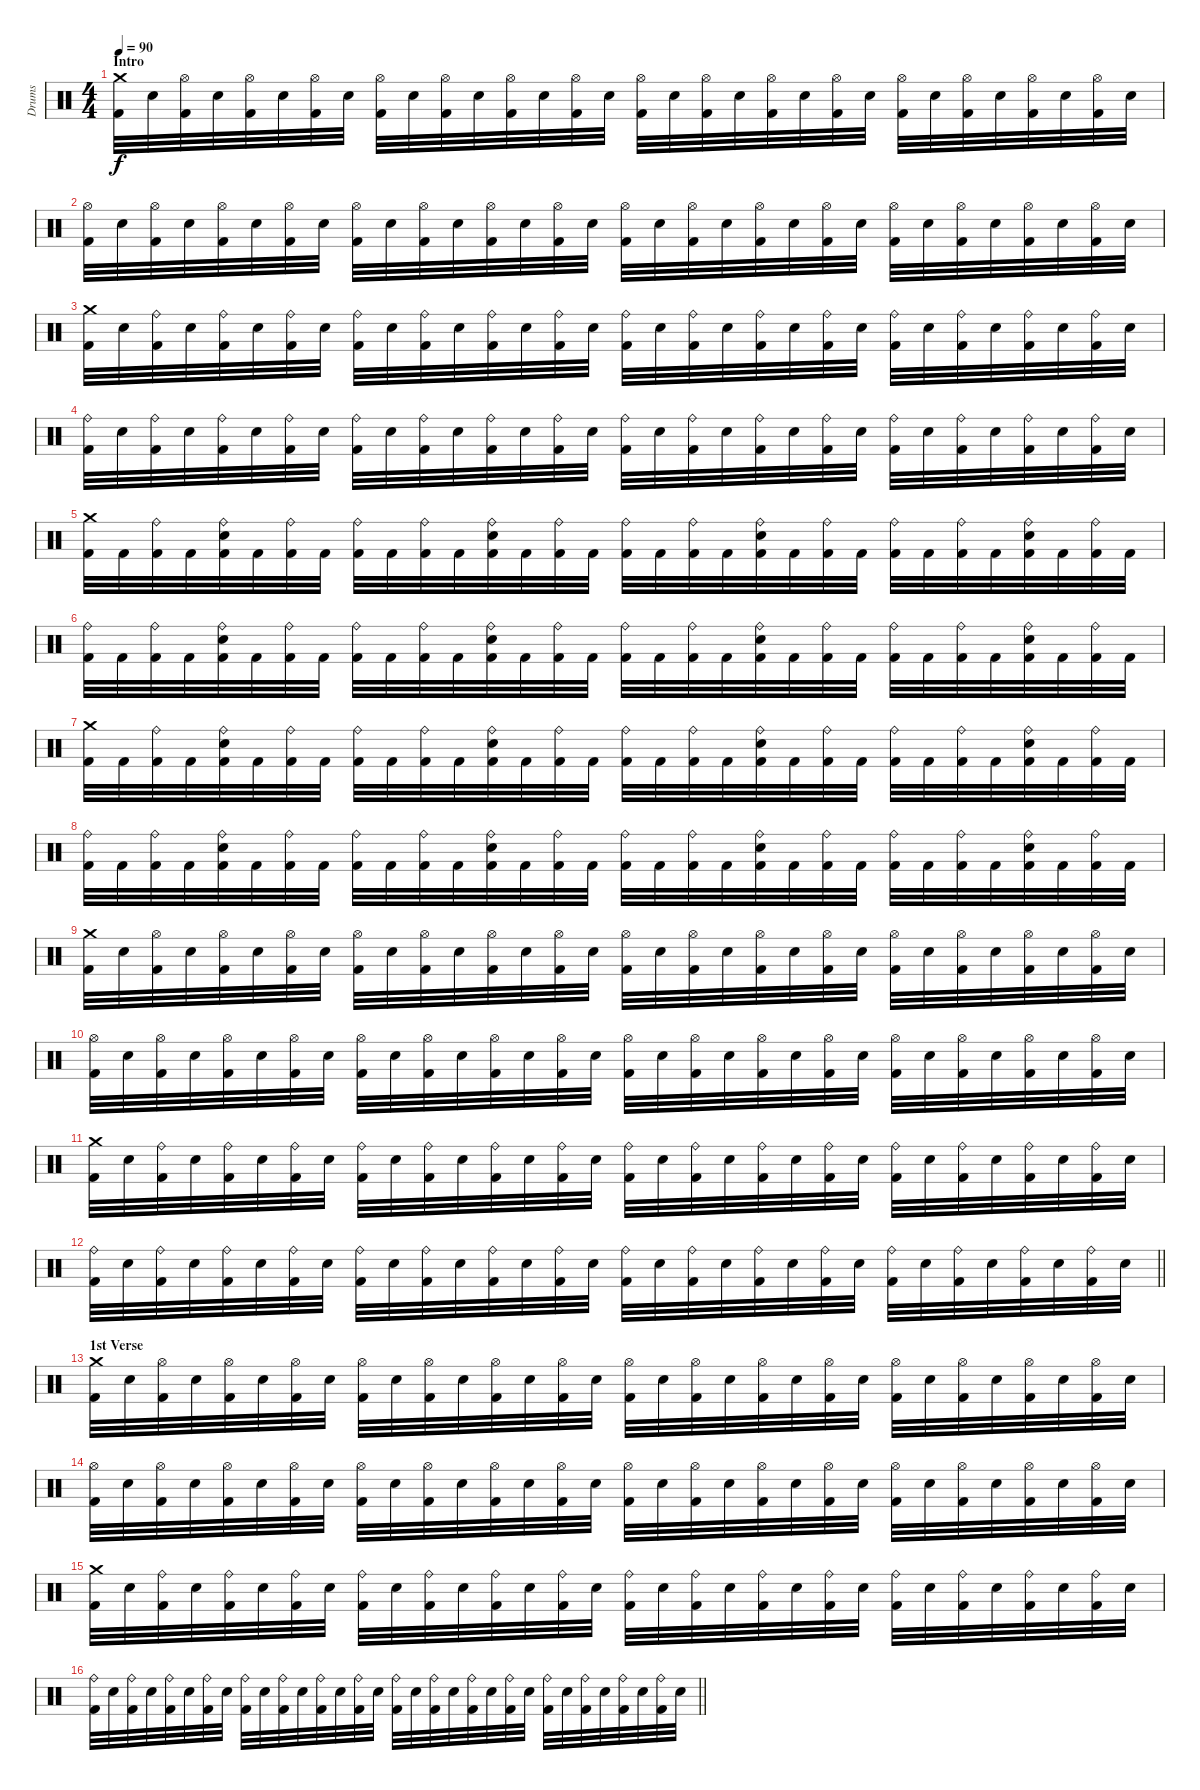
\track ("Drums" "Drums") {instrument percussion}
\staff {score}
\articulation defaults
\ts (4 4)
\section ("" "Intro")
\tempo 90
\clef neutral
\ks c
("Crash medium (hit)" "Kick (hit) 2").32{dy f} "Snare (hit) 2".32 ("Hi-Hat (open)" "Kick (hit) 2").32 "Snare (hit) 2".32 ("Hi-Hat (open)" "Kick (hit) 2").32 "Snare (hit) 2".32 ("Hi-Hat (open)" "Kick (hit) 2").32 "Snare (hit) 2".32 ("Hi-Hat (open)" "Kick (hit) 2").32 "Snare (hit) 2".32 ("Hi-Hat (open)" "Kick (hit) 2").32 "Snare (hit) 2".32 ("Hi-Hat (open)" "Kick (hit) 2").32 "Snare (hit) 2".32 ("Hi-Hat (open)" "Kick (hit) 2").32 "Snare (hit) 2".32 ("Hi-Hat (open)" "Kick (hit) 2").32 "Snare (hit) 2".32 ("Hi-Hat (open)" "Kick (hit) 2").32 "Snare (hit) 2".32 ("Hi-Hat (open)" "Kick (hit) 2").32 "Snare (hit) 2".32 ("Hi-Hat (open)" "Kick (hit) 2").32 "Snare (hit) 2".32 ("Hi-Hat (open)" "Kick (hit) 2").32 "Snare (hit) 2".32 ("Hi-Hat (open)" "Kick (hit) 2").32 "Snare (hit) 2".32 ("Hi-Hat (open)" "Kick (hit) 2").32 "Snare (hit) 2".32 ("Hi-Hat (open)" "Kick (hit) 2").32 "Snare (hit) 2".32 |
("Hi-Hat (open)" "Kick (hit) 2").32 "Snare (hit) 2".32 ("Hi-Hat (open)" "Kick (hit) 2").32 "Snare (hit) 2".32 ("Hi-Hat (open)" "Kick (hit) 2").32 "Snare (hit) 2".32 ("Hi-Hat (open)" "Kick (hit) 2").32 "Snare (hit) 2".32 ("Hi-Hat (open)" "Kick (hit) 2").32 "Snare (hit) 2".32 ("Hi-Hat (open)" "Kick (hit) 2").32 "Snare (hit) 2".32 ("Hi-Hat (open)" "Kick (hit) 2").32 "Snare (hit) 2".32 ("Hi-Hat (open)" "Kick (hit) 2").32 "Snare (hit) 2".32 ("Hi-Hat (open)" "Kick (hit) 2").32 "Snare (hit) 2".32 ("Hi-Hat (open)" "Kick (hit) 2").32 "Snare (hit) 2".32 ("Hi-Hat (open)" "Kick (hit) 2").32 "Snare (hit) 2".32 ("Hi-Hat (open)" "Kick (hit) 2").32 "Snare (hit) 2".32 ("Hi-Hat (open)" "Kick (hit) 2").32 "Snare (hit) 2".32 ("Hi-Hat (open)" "Kick (hit) 2").32 "Snare (hit) 2".32 ("Hi-Hat (open)" "Kick (hit) 2").32 "Snare (hit) 2".32 ("Hi-Hat (open)" "Kick (hit) 2").32 "Snare (hit) 2".32 |
("Crash medium (hit)" "Kick (hit) 2").32 "Snare (hit) 2".32 ("Ride (bell)" "Kick (hit) 2").32 "Snare (hit) 2".32 ("Ride (bell)" "Kick (hit) 2").32 "Snare (hit) 2".32 ("Ride (bell)" "Kick (hit) 2").32 "Snare (hit) 2".32 ("Ride (bell)" "Kick (hit) 2").32 "Snare (hit) 2".32 ("Ride (bell)" "Kick (hit) 2").32 "Snare (hit) 2".32 ("Ride (bell)" "Kick (hit) 2").32 "Snare (hit) 2".32 ("Ride (bell)" "Kick (hit) 2").32 "Snare (hit) 2".32 ("Ride (bell)" "Kick (hit) 2").32 "Snare (hit) 2".32 ("Ride (bell)" "Kick (hit) 2").32 "Snare (hit) 2".32 ("Ride (bell)" "Kick (hit) 2").32 "Snare (hit) 2".32 ("Ride (bell)" "Kick (hit) 2").32 "Snare (hit) 2".32 ("Ride (bell)" "Kick (hit) 2").32 "Snare (hit) 2".32 ("Ride (bell)" "Kick (hit) 2").32 "Snare (hit) 2".32 ("Ride (bell)" "Kick (hit) 2").32 "Snare (hit) 2".32 ("Ride (bell)" "Kick (hit) 2").32 "Snare (hit) 2".32 |
("Ride (bell)" "Kick (hit) 2").32 "Snare (hit) 2".32 ("Ride (bell)" "Kick (hit) 2").32 "Snare (hit) 2".32 ("Ride (bell)" "Kick (hit) 2").32 "Snare (hit) 2".32 ("Ride (bell)" "Kick (hit) 2").32 "Snare (hit) 2".32 ("Ride (bell)" "Kick (hit) 2").32 "Snare (hit) 2".32 ("Ride (bell)" "Kick (hit) 2").32 "Snare (hit) 2".32 ("Ride (bell)" "Kick (hit) 2").32 "Snare (hit) 2".32 ("Ride (bell)" "Kick (hit) 2").32 "Snare (hit) 2".32 ("Ride (bell)" "Kick (hit) 2").32 "Snare (hit) 2".32 ("Ride (bell)" "Kick (hit) 2").32 "Snare (hit) 2".32 ("Ride (bell)" "Kick (hit) 2").32 "Snare (hit) 2".32 ("Ride (bell)" "Kick (hit) 2").32 "Snare (hit) 2".32 ("Ride (bell)" "Kick (hit) 2").32 "Snare (hit) 2".32 ("Ride (bell)" "Kick (hit) 2").32 "Snare (hit) 2".32 ("Ride (bell)" "Kick (hit) 2").32 "Snare (hit) 2".32 ("Ride (bell)" "Kick (hit) 2").32 "Snare (hit) 2".32 |
("Crash medium (hit)" "Kick (hit) 2").32 "Kick (hit) 2".32 ("Ride (bell)" "Kick (hit) 2").32 "Kick (hit) 2".32 ("Ride (bell)" "Snare (hit) 2" "Kick (hit) 2").32 "Kick (hit) 2".32 ("Ride (bell)" "Kick (hit) 2").32 "Kick (hit) 2".32 ("Ride (bell)" "Kick (hit) 2").32 "Kick (hit) 2".32 ("Ride (bell)" "Kick (hit) 2").32 "Kick (hit) 2".32 ("Ride (bell)" "Snare (hit) 2" "Kick (hit) 2").32 "Kick (hit) 2".32 ("Ride (bell)" "Kick (hit) 2").32 "Kick (hit) 2".32 ("Ride (bell)" "Kick (hit) 2").32 "Kick (hit) 2".32 ("Ride (bell)" "Kick (hit) 2").32 "Kick (hit) 2".32 ("Ride (bell)" "Snare (hit) 2" "Kick (hit) 2").32 "Kick (hit) 2".32 ("Ride (bell)" "Kick (hit) 2").32 "Kick (hit) 2".32 ("Ride (bell)" "Kick (hit) 2").32 "Kick (hit) 2".32 ("Ride (bell)" "Kick (hit) 2").32 "Kick (hit) 2".32 ("Ride (bell)" "Snare (hit) 2" "Kick (hit) 2").32 "Kick (hit) 2".32 ("Ride (bell)" "Kick (hit) 2").32 "Kick (hit) 2".32 |
("Ride (bell)" "Kick (hit) 2").32 "Kick (hit) 2".32 ("Ride (bell)" "Kick (hit) 2").32 "Kick (hit) 2".32 ("Ride (bell)" "Snare (hit) 2" "Kick (hit) 2").32 "Kick (hit) 2".32 ("Ride (bell)" "Kick (hit) 2").32 "Kick (hit) 2".32 ("Ride (bell)" "Kick (hit) 2").32 "Kick (hit) 2".32 ("Ride (bell)" "Kick (hit) 2").32 "Kick (hit) 2".32 ("Ride (bell)" "Snare (hit) 2" "Kick (hit) 2").32 "Kick (hit) 2".32 ("Ride (bell)" "Kick (hit) 2").32 "Kick (hit) 2".32 ("Ride (bell)" "Kick (hit) 2").32 "Kick (hit) 2".32 ("Ride (bell)" "Kick (hit) 2").32 "Kick (hit) 2".32 ("Ride (bell)" "Snare (hit) 2" "Kick (hit) 2").32 "Kick (hit) 2".32 ("Ride (bell)" "Kick (hit) 2").32 "Kick (hit) 2".32 ("Ride (bell)" "Kick (hit) 2").32 "Kick (hit) 2".32 ("Ride (bell)" "Kick (hit) 2").32 "Kick (hit) 2".32 ("Ride (bell)" "Snare (hit) 2" "Kick (hit) 2").32 "Kick (hit) 2".32 ("Ride (bell)" "Kick (hit) 2").32 "Kick (hit) 2".32 |
("Crash medium (hit)" "Kick (hit) 2").32 "Kick (hit) 2".32 ("Ride (bell)" "Kick (hit) 2").32 "Kick (hit) 2".32 ("Ride (bell)" "Snare (hit) 2" "Kick (hit) 2").32 "Kick (hit) 2".32 ("Ride (bell)" "Kick (hit) 2").32 "Kick (hit) 2".32 ("Ride (bell)" "Kick (hit) 2").32 "Kick (hit) 2".32 ("Ride (bell)" "Kick (hit) 2").32 "Kick (hit) 2".32 ("Ride (bell)" "Snare (hit) 2" "Kick (hit) 2").32 "Kick (hit) 2".32 ("Ride (bell)" "Kick (hit) 2").32 "Kick (hit) 2".32 ("Ride (bell)" "Kick (hit) 2").32 "Kick (hit) 2".32 ("Ride (bell)" "Kick (hit) 2").32 "Kick (hit) 2".32 ("Ride (bell)" "Snare (hit) 2" "Kick (hit) 2").32 "Kick (hit) 2".32 ("Ride (bell)" "Kick (hit) 2").32 "Kick (hit) 2".32 ("Ride (bell)" "Kick (hit) 2").32 "Kick (hit) 2".32 ("Ride (bell)" "Kick (hit) 2").32 "Kick (hit) 2".32 ("Ride (bell)" "Snare (hit) 2" "Kick (hit) 2").32 "Kick (hit) 2".32 ("Ride (bell)" "Kick (hit) 2").32 "Kick (hit) 2".32 |
("Ride (bell)" "Kick (hit) 2").32 "Kick (hit) 2".32 ("Ride (bell)" "Kick (hit) 2").32 "Kick (hit) 2".32 ("Ride (bell)" "Snare (hit) 2" "Kick (hit) 2").32 "Kick (hit) 2".32 ("Ride (bell)" "Kick (hit) 2").32 "Kick (hit) 2".32 ("Ride (bell)" "Kick (hit) 2").32 "Kick (hit) 2".32 ("Ride (bell)" "Kick (hit) 2").32 "Kick (hit) 2".32 ("Ride (bell)" "Snare (hit) 2" "Kick (hit) 2").32 "Kick (hit) 2".32 ("Ride (bell)" "Kick (hit) 2").32 "Kick (hit) 2".32 ("Ride (bell)" "Kick (hit) 2").32 "Kick (hit) 2".32 ("Ride (bell)" "Kick (hit) 2").32 "Kick (hit) 2".32 ("Ride (bell)" "Snare (hit) 2" "Kick (hit) 2").32 "Kick (hit) 2".32 ("Ride (bell)" "Kick (hit) 2").32 "Kick (hit) 2".32 ("Ride (bell)" "Kick (hit) 2").32 "Kick (hit) 2".32 ("Ride (bell)" "Kick (hit) 2").32 "Kick (hit) 2".32 ("Ride (bell)" "Snare (hit) 2" "Kick (hit) 2").32 "Kick (hit) 2".32 ("Ride (bell)" "Kick (hit) 2").32 "Kick (hit) 2".32 |
("Crash medium (hit)" "Kick (hit) 2").32 "Snare (hit) 2".32 ("Hi-Hat (open)" "Kick (hit) 2").32 "Snare (hit) 2".32 ("Hi-Hat (open)" "Kick (hit) 2").32 "Snare (hit) 2".32 ("Hi-Hat (open)" "Kick (hit) 2").32 "Snare (hit) 2".32 ("Hi-Hat (open)" "Kick (hit) 2").32 "Snare (hit) 2".32 ("Hi-Hat (open)" "Kick (hit) 2").32 "Snare (hit) 2".32 ("Hi-Hat (open)" "Kick (hit) 2").32 "Snare (hit) 2".32 ("Hi-Hat (open)" "Kick (hit) 2").32 "Snare (hit) 2".32 ("Hi-Hat (open)" "Kick (hit) 2").32 "Snare (hit) 2".32 ("Hi-Hat (open)" "Kick (hit) 2").32 "Snare (hit) 2".32 ("Hi-Hat (open)" "Kick (hit) 2").32 "Snare (hit) 2".32 ("Hi-Hat (open)" "Kick (hit) 2").32 "Snare (hit) 2".32 ("Hi-Hat (open)" "Kick (hit) 2").32 "Snare (hit) 2".32 ("Hi-Hat (open)" "Kick (hit) 2").32 "Snare (hit) 2".32 ("Hi-Hat (open)" "Kick (hit) 2").32 "Snare (hit) 2".32 ("Hi-Hat (open)" "Kick (hit) 2").32 "Snare (hit) 2".32 |
("Hi-Hat (open)" "Kick (hit) 2").32 "Snare (hit) 2".32 ("Hi-Hat (open)" "Kick (hit) 2").32 "Snare (hit) 2".32 ("Hi-Hat (open)" "Kick (hit) 2").32 "Snare (hit) 2".32 ("Hi-Hat (open)" "Kick (hit) 2").32 "Snare (hit) 2".32 ("Hi-Hat (open)" "Kick (hit) 2").32 "Snare (hit) 2".32 ("Hi-Hat (open)" "Kick (hit) 2").32 "Snare (hit) 2".32 ("Hi-Hat (open)" "Kick (hit) 2").32 "Snare (hit) 2".32 ("Hi-Hat (open)" "Kick (hit) 2").32 "Snare (hit) 2".32 ("Hi-Hat (open)" "Kick (hit) 2").32 "Snare (hit) 2".32 ("Hi-Hat (open)" "Kick (hit) 2").32 "Snare (hit) 2".32 ("Hi-Hat (open)" "Kick (hit) 2").32 "Snare (hit) 2".32 ("Hi-Hat (open)" "Kick (hit) 2").32 "Snare (hit) 2".32 ("Hi-Hat (open)" "Kick (hit) 2").32 "Snare (hit) 2".32 ("Hi-Hat (open)" "Kick (hit) 2").32 "Snare (hit) 2".32 ("Hi-Hat (open)" "Kick (hit) 2").32 "Snare (hit) 2".32 ("Hi-Hat (open)" "Kick (hit) 2").32 "Snare (hit) 2".32 |
("Crash medium (hit)" "Kick (hit) 2").32 "Snare (hit) 2".32 ("Ride (bell)" "Kick (hit) 2").32 "Snare (hit) 2".32 ("Ride (bell)" "Kick (hit) 2").32 "Snare (hit) 2".32 ("Ride (bell)" "Kick (hit) 2").32 "Snare (hit) 2".32 ("Ride (bell)" "Kick (hit) 2").32 "Snare (hit) 2".32 ("Ride (bell)" "Kick (hit) 2").32 "Snare (hit) 2".32 ("Ride (bell)" "Kick (hit) 2").32 "Snare (hit) 2".32 ("Ride (bell)" "Kick (hit) 2").32 "Snare (hit) 2".32 ("Ride (bell)" "Kick (hit) 2").32 "Snare (hit) 2".32 ("Ride (bell)" "Kick (hit) 2").32 "Snare (hit) 2".32 ("Ride (bell)" "Kick (hit) 2").32 "Snare (hit) 2".32 ("Ride (bell)" "Kick (hit) 2").32 "Snare (hit) 2".32 ("Ride (bell)" "Kick (hit) 2").32 "Snare (hit) 2".32 ("Ride (bell)" "Kick (hit) 2").32 "Snare (hit) 2".32 ("Ride (bell)" "Kick (hit) 2").32 "Snare (hit) 2".32 ("Ride (bell)" "Kick (hit) 2").32 "Snare (hit) 2".32 |
\barLineRight lightlight
("Ride (bell)" "Kick (hit) 2").32 "Snare (hit) 2".32 ("Ride (bell)" "Kick (hit) 2").32 "Snare (hit) 2".32 ("Ride (bell)" "Kick (hit) 2").32 "Snare (hit) 2".32 ("Ride (bell)" "Kick (hit) 2").32 "Snare (hit) 2".32 ("Ride (bell)" "Kick (hit) 2").32 "Snare (hit) 2".32 ("Ride (bell)" "Kick (hit) 2").32 "Snare (hit) 2".32 ("Ride (bell)" "Kick (hit) 2").32 "Snare (hit) 2".32 ("Ride (bell)" "Kick (hit) 2").32 "Snare (hit) 2".32 ("Ride (bell)" "Kick (hit) 2").32 "Snare (hit) 2".32 ("Ride (bell)" "Kick (hit) 2").32 "Snare (hit) 2".32 ("Ride (bell)" "Kick (hit) 2").32 "Snare (hit) 2".32 ("Ride (bell)" "Kick (hit) 2").32 "Snare (hit) 2".32 ("Ride (bell)" "Kick (hit) 2").32 "Snare (hit) 2".32 ("Ride (bell)" "Kick (hit) 2").32 "Snare (hit) 2".32 ("Ride (bell)" "Kick (hit) 2").32 "Snare (hit) 2".32 ("Ride (bell)" "Kick (hit) 2").32 "Snare (hit) 2".32 |
\section ("" "1st Verse")
("Crash medium (hit)" "Kick (hit) 2").32 "Snare (hit) 2".32 ("Hi-Hat (open)" "Kick (hit) 2").32 "Snare (hit) 2".32 ("Hi-Hat (open)" "Kick (hit) 2").32 "Snare (hit) 2".32 ("Hi-Hat (open)" "Kick (hit) 2").32 "Snare (hit) 2".32 ("Hi-Hat (open)" "Kick (hit) 2").32 "Snare (hit) 2".32 ("Hi-Hat (open)" "Kick (hit) 2").32 "Snare (hit) 2".32 ("Hi-Hat (open)" "Kick (hit) 2").32 "Snare (hit) 2".32 ("Hi-Hat (open)" "Kick (hit) 2").32 "Snare (hit) 2".32 ("Hi-Hat (open)" "Kick (hit) 2").32 "Snare (hit) 2".32 ("Hi-Hat (open)" "Kick (hit) 2").32 "Snare (hit) 2".32 ("Hi-Hat (open)" "Kick (hit) 2").32 "Snare (hit) 2".32 ("Hi-Hat (open)" "Kick (hit) 2").32 "Snare (hit) 2".32 ("Hi-Hat (open)" "Kick (hit) 2").32 "Snare (hit) 2".32 ("Hi-Hat (open)" "Kick (hit) 2").32 "Snare (hit) 2".32 ("Hi-Hat (open)" "Kick (hit) 2").32 "Snare (hit) 2".32 ("Hi-Hat (open)" "Kick (hit) 2").32 "Snare (hit) 2".32 |
("Hi-Hat (open)" "Kick (hit) 2").32 "Snare (hit) 2".32 ("Hi-Hat (open)" "Kick (hit) 2").32 "Snare (hit) 2".32 ("Hi-Hat (open)" "Kick (hit) 2").32 "Snare (hit) 2".32 ("Hi-Hat (open)" "Kick (hit) 2").32 "Snare (hit) 2".32 ("Hi-Hat (open)" "Kick (hit) 2").32 "Snare (hit) 2".32 ("Hi-Hat (open)" "Kick (hit) 2").32 "Snare (hit) 2".32 ("Hi-Hat (open)" "Kick (hit) 2").32 "Snare (hit) 2".32 ("Hi-Hat (open)" "Kick (hit) 2").32 "Snare (hit) 2".32 ("Hi-Hat (open)" "Kick (hit) 2").32 "Snare (hit) 2".32 ("Hi-Hat (open)" "Kick (hit) 2").32 "Snare (hit) 2".32 ("Hi-Hat (open)" "Kick (hit) 2").32 "Snare (hit) 2".32 ("Hi-Hat (open)" "Kick (hit) 2").32 "Snare (hit) 2".32 ("Hi-Hat (open)" "Kick (hit) 2").32 "Snare (hit) 2".32 ("Hi-Hat (open)" "Kick (hit) 2").32 "Snare (hit) 2".32 ("Hi-Hat (open)" "Kick (hit) 2").32 "Snare (hit) 2".32 ("Hi-Hat (open)" "Kick (hit) 2").32 "Snare (hit) 2".32 |
("Crash medium (hit)" "Kick (hit) 2").32 "Snare (hit) 2".32 ("Ride (bell)" "Kick (hit) 2").32 "Snare (hit) 2".32 ("Ride (bell)" "Kick (hit) 2").32 "Snare (hit) 2".32 ("Ride (bell)" "Kick (hit) 2").32 "Snare (hit) 2".32 ("Ride (bell)" "Kick (hit) 2").32 "Snare (hit) 2".32 ("Ride (bell)" "Kick (hit) 2").32 "Snare (hit) 2".32 ("Ride (bell)" "Kick (hit) 2").32 "Snare (hit) 2".32 ("Ride (bell)" "Kick (hit) 2").32 "Snare (hit) 2".32 ("Ride (bell)" "Kick (hit) 2").32 "Snare (hit) 2".32 ("Ride (bell)" "Kick (hit) 2").32 "Snare (hit) 2".32 ("Ride (bell)" "Kick (hit) 2").32 "Snare (hit) 2".32 ("Ride (bell)" "Kick (hit) 2").32 "Snare (hit) 2".32 ("Ride (bell)" "Kick (hit) 2").32 "Snare (hit) 2".32 ("Ride (bell)" "Kick (hit) 2").32 "Snare (hit) 2".32 ("Ride (bell)" "Kick (hit) 2").32 "Snare (hit) 2".32 ("Ride (bell)" "Kick (hit) 2").32 "Snare (hit) 2".32 |
\barLineRight lightlight
("Ride (bell)" "Kick (hit) 2").32 "Snare (hit) 2".32 ("Ride (bell)" "Kick (hit) 2").32 "Snare (hit) 2".32 ("Ride (bell)" "Kick (hit) 2").32 "Snare (hit) 2".32 ("Ride (bell)" "Kick (hit) 2").32 "Snare (hit) 2".32 ("Ride (bell)" "Kick (hit) 2").32 "Snare (hit) 2".32 ("Ride (bell)" "Kick (hit) 2").32 "Snare (hit) 2".32 ("Ride (bell)" "Kick (hit) 2").32 "Snare (hit) 2".32 ("Ride (bell)" "Kick (hit) 2").32 "Snare (hit) 2".32 ("Ride (bell)" "Kick (hit) 2").32 "Snare (hit) 2".32 ("Ride (bell)" "Kick (hit) 2").32 "Snare (hit) 2".32 ("Ride (bell)" "Kick (hit) 2").32 "Snare (hit) 2".32 ("Ride (bell)" "Kick (hit) 2").32 "Snare (hit) 2".32 ("Ride (bell)" "Kick (hit) 2").32 "Snare (hit) 2".32 ("Ride (bell)" "Kick (hit) 2").32 "Snare (hit) 2".32 ("Ride (bell)" "Kick (hit) 2").32 "Snare (hit) 2".32 ("Ride (bell)" "Kick (hit) 2").32 "Snare (hit) 2".32
